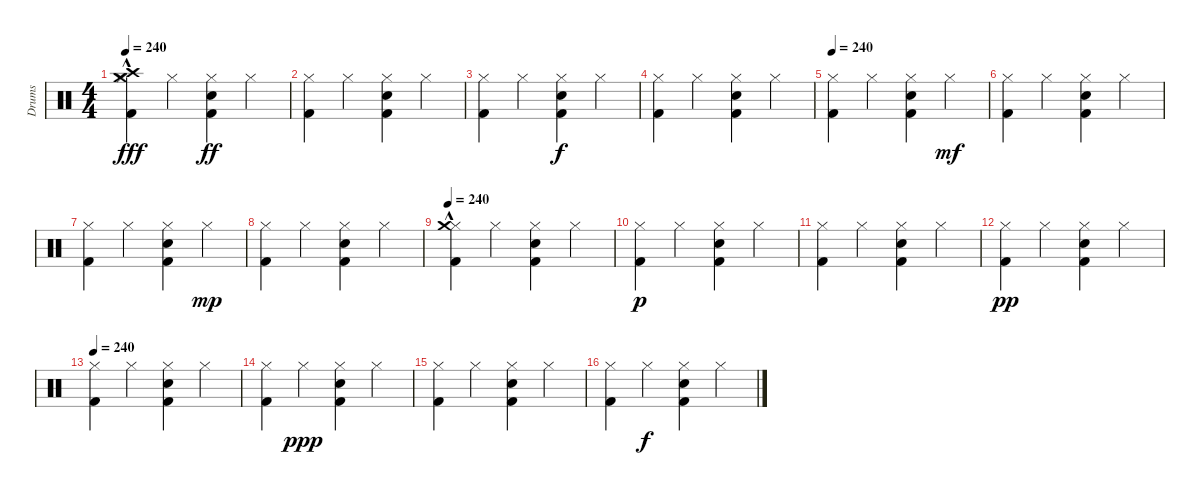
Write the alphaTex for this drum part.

\track ("Drums" "Drums") {instrument percussion}
\staff {score}
\articulation defaults
\ts (4 4)
\tempo 240
\clef neutral
\ks c
("Crash medium (hit)"{hac} "Hi-Hat (closed)" "Kick (hit) 2" "Crash high (hit)").4{dy fff} "Hi-Hat (closed)".4 ("Snare (hit) 2" "Kick (hit) 2" "Hi-Hat (closed)").4{dy ff} "Hi-Hat (closed)".4 |
("Hi-Hat (closed)" "Kick (hit) 2").4 "Hi-Hat (closed)".4 ("Kick (hit) 2" "Snare (hit) 2" "Hi-Hat (closed)").4 "Hi-Hat (closed)".4 |
("Kick (hit) 2" "Hi-Hat (closed)").4 "Hi-Hat (closed)".4 ("Snare (hit) 2" "Hi-Hat (closed)" "Kick (hit) 2").4{dy f} "Hi-Hat (closed)".4 |
("Hi-Hat (closed)" "Kick (hit) 2").4 "Hi-Hat (closed)".4 ("Snare (hit) 2" "Kick (hit) 2" "Hi-Hat (closed)").4 "Hi-Hat (closed)".4 |
\tempo 240
("Kick (hit) 2" "Hi-Hat (closed)").4 "Hi-Hat (closed)".4 ("Snare (hit) 2" "Kick (hit) 2" "Hi-Hat (closed)").4 "Hi-Hat (closed)".4{dy mf} |
("Kick (hit) 2" "Hi-Hat (closed)").4 "Hi-Hat (closed)".4 ("Hi-Hat (closed)" "Snare (hit) 2" "Kick (hit) 2").4 "Hi-Hat (closed)".4 |
("Kick (hit) 2" "Hi-Hat (closed)").4 "Hi-Hat (closed)".4 ("Kick (hit) 2" "Hi-Hat (closed)" "Snare (hit) 2").4 "Hi-Hat (closed)".4{dy mp} |
("Kick (hit) 2" "Hi-Hat (closed)").4 "Hi-Hat (closed)".4 ("Hi-Hat (closed)" "Kick (hit) 2" "Snare (hit) 2").4 "Hi-Hat (closed)".4 |
\tempo 240
("Hi-Hat (closed)" "Kick (hit) 2" "Crash medium (hit)"{hac}).4 "Hi-Hat (closed)".4 ("Kick (hit) 2" "Snare (hit) 2" "Hi-Hat (closed)").4 "Hi-Hat (closed)".4 |
("Kick (hit) 2" "Hi-Hat (closed)").4{dy p} "Hi-Hat (closed)".4 ("Snare (hit) 2" "Hi-Hat (closed)" "Kick (hit) 2").4 "Hi-Hat (closed)".4 |
("Kick (hit) 2" "Hi-Hat (closed)").4 "Hi-Hat (closed)".4 ("Kick (hit) 2" "Snare (hit) 2" "Hi-Hat (closed)").4 "Hi-Hat (closed)".4 |
("Hi-Hat (closed)" "Kick (hit) 2").4{dy pp} "Hi-Hat (closed)".4 ("Kick (hit) 2" "Snare (hit) 2" "Hi-Hat (closed)").4 "Hi-Hat (closed)".4 |
\tempo 240
("Kick (hit) 2" "Hi-Hat (closed)").4 "Hi-Hat (closed)".4 ("Hi-Hat (closed)" "Kick (hit) 2" "Snare (hit) 2").4 "Hi-Hat (closed)".4 |
("Kick (hit) 2" "Hi-Hat (closed)").4 "Hi-Hat (closed)".4{dy ppp} ("Kick (hit) 2" "Hi-Hat (closed)" "Snare (hit) 2").4 "Hi-Hat (closed)".4 |
("Hi-Hat (closed)" "Kick (hit) 2").4 "Hi-Hat (closed)".4 ("Kick (hit) 2" "Snare (hit) 2" "Hi-Hat (closed)").4 "Hi-Hat (closed)".4 |
("Hi-Hat (closed)" "Kick (hit) 2").4 "Hi-Hat (closed)".4{dy f} ("Kick (hit) 2" "Snare (hit) 2" "Hi-Hat (closed)").4 "Hi-Hat (closed)".4
